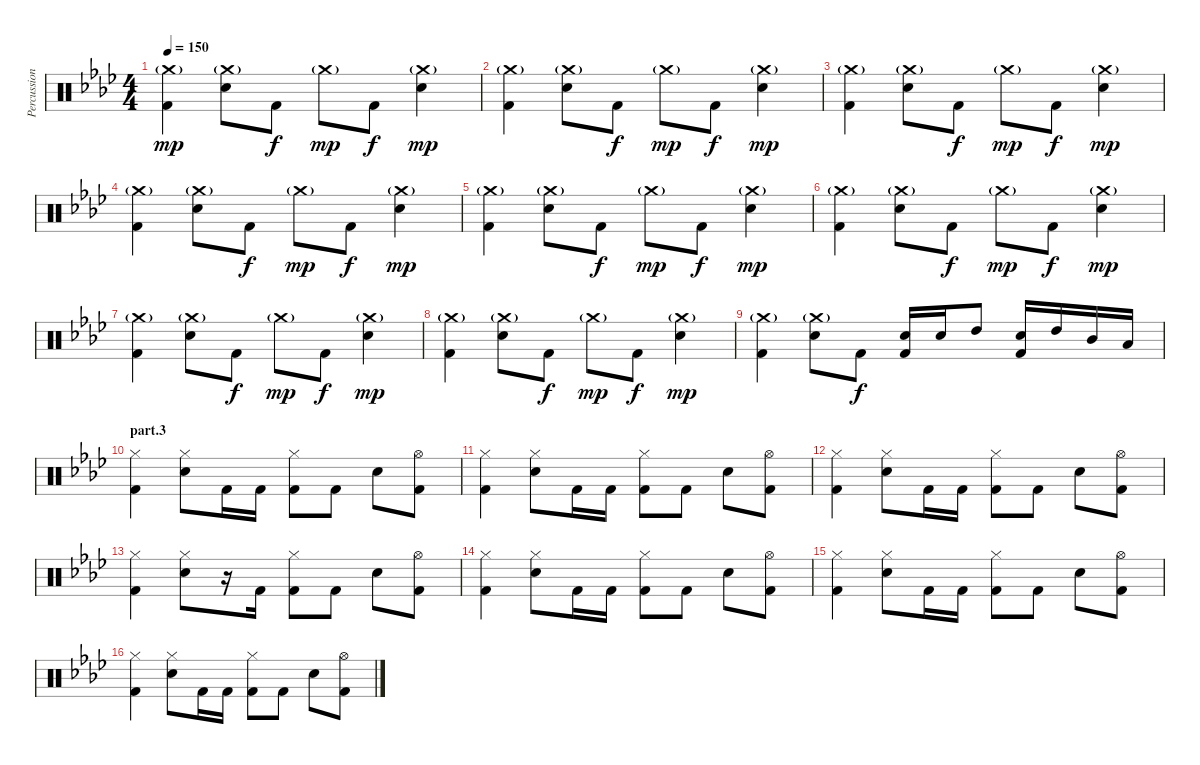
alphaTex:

\track ("Percussions 2" "Percussion") {instrument percussion}
\staff {score}
\articulation defaults
\ts (4 4)
\tempo 150
\clef neutral
\ks ab
("Crash medium (hit)"{g} "Kick (hit) 2").4{dy mp} ("Crash medium (hit)"{g} "Snare (hit) 2").8 "Kick (hit) 2".8{dy f} "Crash medium (hit)"{g}.8{dy mp} "Kick (hit) 2".8{dy f} ("Crash medium (hit)"{g} "Snare (hit) 2").4{dy mp} |
("Crash medium (hit)"{g} "Kick (hit) 2").4 ("Crash medium (hit)"{g} "Snare (hit) 2").8 "Kick (hit) 2".8{dy f} "Crash medium (hit)"{g}.8{dy mp} "Kick (hit) 2".8{dy f} ("Crash medium (hit)"{g} "Snare (hit) 2").4{dy mp} |
("Crash medium (hit)"{g} "Kick (hit) 2").4{volume 16} ("Crash medium (hit)"{g} "Snare (hit) 2").8 "Kick (hit) 2".8{dy f} "Crash medium (hit)"{g}.8{dy mp} "Kick (hit) 2".8{dy f} ("Crash medium (hit)"{g} "Snare (hit) 2").4{dy mp} |
("Crash medium (hit)"{g} "Kick (hit) 2").4 ("Crash medium (hit)"{g} "Snare (hit) 2").8 "Kick (hit) 2".8{dy f} "Crash medium (hit)"{g}.8{dy mp} "Kick (hit) 2".8{dy f} ("Crash medium (hit)"{g} "Snare (hit) 2").4{dy mp} |
("Crash medium (hit)"{g} "Kick (hit) 2").4 ("Crash medium (hit)"{g} "Snare (hit) 2").8 "Kick (hit) 2".8{dy f} "Crash medium (hit)"{g}.8{dy mp} "Kick (hit) 2".8{dy f} ("Crash medium (hit)"{g} "Snare (hit) 2").4{dy mp} |
("Crash medium (hit)"{g} "Kick (hit) 2").4 ("Crash medium (hit)"{g} "Snare (hit) 2").8 "Kick (hit) 2".8{dy f} "Crash medium (hit)"{g}.8{dy mp} "Kick (hit) 2".8{dy f} ("Crash medium (hit)"{g} "Snare (hit) 2").4{dy mp} |
("Crash medium (hit)"{g} "Kick (hit) 2").4{volume 16} ("Crash medium (hit)"{g} "Snare (hit) 2").8 "Kick (hit) 2".8{dy f} "Crash medium (hit)"{g}.8{dy mp} "Kick (hit) 2".8{dy f} ("Crash medium (hit)"{g} "Snare (hit) 2").4{dy mp} |
("Crash medium (hit)"{g} "Kick (hit) 2").4 ("Crash medium (hit)"{g} "Snare (hit) 2").8 "Kick (hit) 2".8{dy f} "Crash medium (hit)"{g}.8{dy mp} "Kick (hit) 2".8{dy f} ("Crash medium (hit)"{g} "Snare (hit) 2").4{dy mp} |
("Crash medium (hit)"{g} "Kick (hit) 2").4 ("Crash medium (hit)"{g} "Snare (hit) 2").8 "Kick (hit) 2".8{dy f} ("Snare (hit) 2" "Kick (hit) 2").16 "Snare (hit) 2".16 "High Tom (hit)".8 ("Snare (hit) 2" "Kick (hit) 2").16 "High Tom (hit)".16 "Mid Tom (hit)".16 "Low Tom (hit)".16 |
\section ("" "part.3")
("Hi-Hat (closed)" "Kick (hit) 2").4{volume 16} ("Hi-Hat (closed)" "Snare (hit) 2").8 "Kick (hit) 2".16 "Kick (hit) 2".16 ("Hi-Hat (closed)" "Kick (hit) 2").8 "Kick (hit) 2".8 "Snare (hit) 2".8 ("Hi-Hat (open)" "Kick (hit) 2").8 |
("Hi-Hat (closed)" "Kick (hit) 2").4 ("Hi-Hat (closed)" "Snare (hit) 2").8 "Kick (hit) 2".16 "Kick (hit) 2".16 ("Hi-Hat (closed)" "Kick (hit) 2").8 "Kick (hit) 2".8 "Snare (hit) 2".8 ("Hi-Hat (open)" "Kick (hit) 2").8 |
("Hi-Hat (closed)" "Kick (hit) 2").4 ("Hi-Hat (closed)" "Snare (hit) 2").8 "Kick (hit) 2".16 "Kick (hit) 2".16 ("Hi-Hat (closed)" "Kick (hit) 2").8 "Kick (hit) 2".8 "Snare (hit) 2".8 ("Hi-Hat (open)" "Kick (hit) 2").8 |
("Hi-Hat (closed)" "Kick (hit) 2").4 ("Hi-Hat (closed)" "Snare (hit) 2").8 r.16 "Kick (hit) 2".16 ("Hi-Hat (closed)" "Kick (hit) 2").8 "Kick (hit) 2".8 "Snare (hit) 2".8 ("Hi-Hat (open)" "Kick (hit) 2").8 |
("Hi-Hat (closed)" "Kick (hit) 2").4 ("Hi-Hat (closed)" "Snare (hit) 2").8 "Kick (hit) 2".16 "Kick (hit) 2".16 ("Hi-Hat (closed)" "Kick (hit) 2").8 "Kick (hit) 2".8 "Snare (hit) 2".8 ("Hi-Hat (open)" "Kick (hit) 2").8 |
("Hi-Hat (closed)" "Kick (hit) 2").4 ("Hi-Hat (closed)" "Snare (hit) 2").8 "Kick (hit) 2".16 "Kick (hit) 2".16 ("Hi-Hat (closed)" "Kick (hit) 2").8 "Kick (hit) 2".8 "Snare (hit) 2".8 ("Hi-Hat (open)" "Kick (hit) 2").8 |
("Hi-Hat (closed)" "Kick (hit) 2").4 ("Hi-Hat (closed)" "Snare (hit) 2").8 "Kick (hit) 2".16 "Kick (hit) 2".16 ("Hi-Hat (closed)" "Kick (hit) 2").8 "Kick (hit) 2".8 "Snare (hit) 2".8 ("Hi-Hat (open)" "Kick (hit) 2").8
